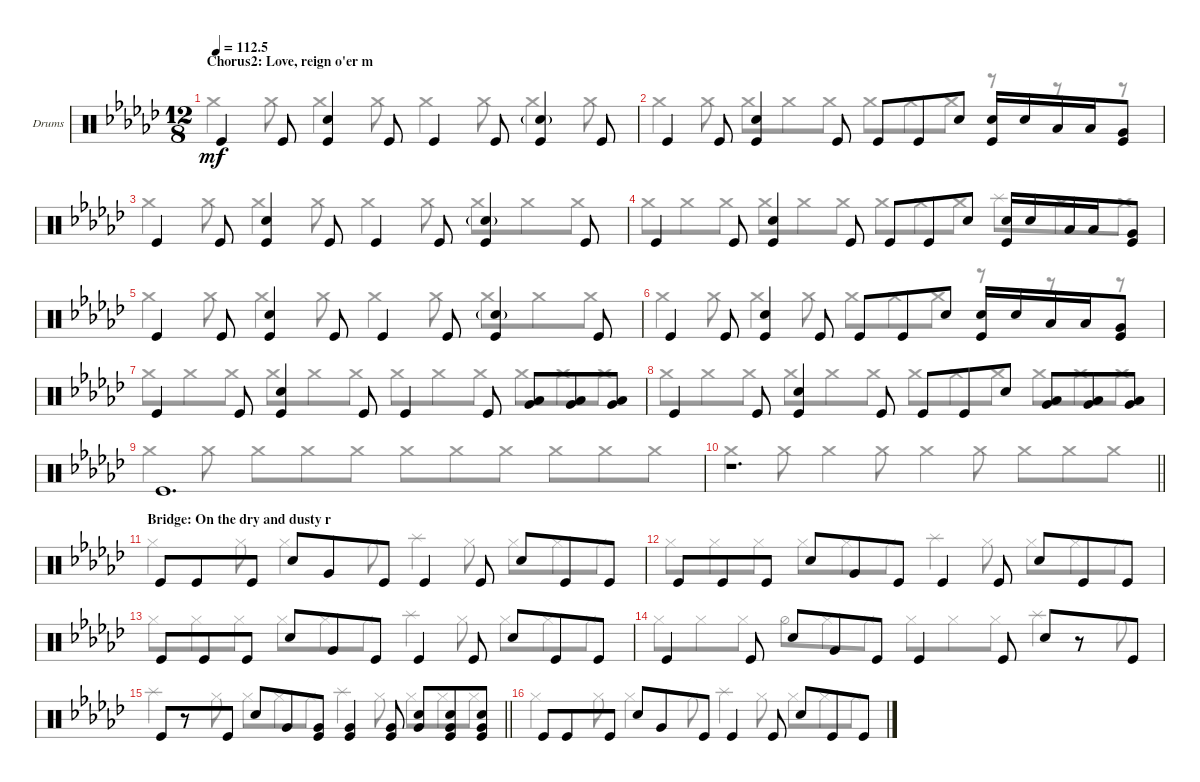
\bracketExtendMode groupsimilarinstruments
\firstSystemTrackNameOrientation horizontal
\otherSystemsTrackNameOrientation horizontal
\track ("Drumkit" "Drums") {instrument percussion}
\staff {score}
\articulation defaults
\voice
\ts (12 8)
\section ("" "Chorus2: Love, reign o'er m")
\tempo
112.5
\accidentals auto
\clef neutral
\ottava regular
\simile none
\ks ebminor "Kick (hit)".4{dy mf} "Kick (hit)".8
("Kick (hit)" "Snare (hit) 2").4 "Kick (hit)".8 "Kick (hit)".4 "Kick (hit)".8 ("Kick (hit)" "Snare (hit) 2"{g}).4 "Kick (hit)".8 |
"Kick (hit)".4 "Kick (hit)".8 ("Kick (hit)" "Snare (hit) 2").4 "Kick (hit)".8 "Kick (hit)".8 "Kick (hit)".8 "Snare (hit) 2".8 ("Snare (hit) 2" "Kick (hit)").16 "Snare (hit) 2".16 "Low Tom (hit)".16 "Low Tom (hit)".16 ("Very Low Tom (hit)" "Kick (hit)").8 |
"Kick (hit)".4 "Kick (hit)".8 ("Kick (hit)" "Snare (hit) 2").4 "Kick (hit)".8 "Kick (hit)".4 "Kick (hit)".8 ("Kick (hit)" "Snare (hit) 2"{g}).4 "Kick (hit)".8 |
"Kick (hit)".4 "Kick (hit)".8 ("Kick (hit)" "Snare (hit) 2").4 "Kick (hit)".8 "Kick (hit)".8 "Kick (hit)".8 "Snare (hit) 2".8 ("Snare (hit) 2" "Kick (hit)").16 "Snare (hit) 2".16 "Low Tom (hit)".16 "Low Tom (hit)".16 ("Very Low Tom (hit)" "Kick (hit)").8 |
"Kick (hit)".4 "Kick (hit)".8 ("Kick (hit)" "Snare (hit) 2").4 "Kick (hit)".8 "Kick (hit)".4 "Kick (hit)".8 ("Kick (hit)" "Snare (hit) 2"{g}).4 "Kick (hit)".8 |
"Kick (hit)".4 "Kick (hit)".8 ("Kick (hit)" "Snare (hit) 2").4 "Kick (hit)".8 "Kick (hit)".8 "Kick (hit)".8 "Snare (hit) 2".8 ("Snare (hit) 2" "Kick (hit)").16 "Snare (hit) 2".16 "Low Tom (hit)".16 "Low Tom (hit)".16 ("Very Low Tom (hit)" "Kick (hit)").8 |
"Kick (hit)".4 "Kick (hit)".8 ("Kick (hit)" "Snare (hit) 2").4 "Kick (hit)".8 "Kick (hit)".4 "Kick (hit)".8 ("Low Tom (hit)" "Very Low Tom (hit)").8 ("Low Tom (hit)" "Very Low Tom (hit)").8 ("Low Tom (hit)" "Very Low Tom (hit)").8 |
"Kick (hit)".4 "Kick (hit)".8 ("Kick (hit)" "Snare (hit) 2").4 "Kick (hit)".8 "Kick (hit)".8 "Kick (hit)".8 "Snare (hit) 2".8 ("Low Tom (hit)" "Very Low Tom (hit)").8 ("Low Tom (hit)" "Very Low Tom (hit)").8 ("Low Tom (hit)" "Very Low Tom (hit)").8 |
"Kick (hit)".1{d} |
\barLineRight lightlight
r.1{d} |
\section ("" "Bridge: On the dry and dusty r")
"Kick (hit)".8 "Kick (hit)".8 "Kick (hit)".8 "Snare (hit) 2".8 "Very Low Tom (hit)".8 "Kick (hit)".8 "Kick (hit)".4 "Kick (hit)".8 "Snare (hit) 2".8 "Kick (hit)".8 "Kick (hit)".8 |
"Kick (hit)".8 "Kick (hit)".8 "Kick (hit)".8 "Snare (hit) 2".8 "Very Low Tom (hit)".8 "Kick (hit)".8 "Kick (hit)".4 "Kick (hit)".8 "Snare (hit) 2".8 "Kick (hit)".8 "Kick (hit)".8 |
"Kick (hit)".8 "Kick (hit)".8 "Kick (hit)".8 "Snare (hit) 2".8 "Very Low Tom (hit)".8 "Kick (hit)".8 "Kick (hit)".4 "Kick (hit)".8 "Snare (hit) 2".8 "Kick (hit)".8 "Kick (hit)".8 |
"Kick (hit)".4 "Kick (hit)".8 "Snare (hit) 2".8 "Very Low Tom (hit)".8 "Kick (hit)".8 "Kick (hit)".4 "Kick (hit)".8 "Snare (hit) 2".8 r.8 "Kick (hit)".8 |
\barLineRight lightlight "Kick (hit)".8
r.8 "Kick (hit)".8 "Snare (hit) 2".8 "Very Low Tom (hit)".8 ("Kick (hit)" "Very Low Tom (hit)").8 ("Kick (hit)" "Very Low Tom (hit)").4 ("Kick (hit)" "Very Low Tom (hit)").8 ("Snare (hit) 2" "Very Low Tom (hit)").8 ("Kick (hit)" "Very Low Tom (hit)" "Snare (hit) 2").8 ("Very Low Tom (hit)" "Kick (hit)" "Snare (hit) 2").8 |
"Kick (hit)".8 "Kick (hit)".8 "Kick (hit)".8 "Snare (hit) 2".8 "Very Low Tom (hit)".8 "Kick (hit)".8 "Kick (hit)".4 "Kick (hit)".8 "Snare (hit) 2".8 "Kick (hit)".8 "Kick (hit)".8
\voice
\clef neutral
\ottava regular
\simile none
\ks ebminor "Crash medium (hit)".4{dy mf} "Crash medium (hit)".8 "Crash medium (hit)".4 "Crash medium (hit)".8 "Crash medium (hit)".4 "Crash medium (hit)".8 "Crash medium (hit)".4 "Crash medium (hit)".8
|
"Crash medium (hit)".4 "Crash medium (hit)".8 "Crash medium (hit)".8 "Crash medium (hit)".8 "Crash medium (hit)".8 "Crash medium (hit)".8 "Crash medium (hit)".8 "Crash medium (hit)".8 r.8 r.8 r.8 |
"Crash medium (hit)".4 "Crash medium (hit)".8 "Crash medium (hit)".4 "Crash medium (hit)".8 "Crash medium (hit)".4 "Crash medium (hit)".8 "Crash medium (hit)".8 "Crash medium (hit)".8 "Crash medium (hit)".8 |
"Crash medium (hit)".8 "Crash medium (hit)".8 "Crash medium (hit)".8 "Crash medium (hit)".8 "Crash medium (hit)".8 "Crash medium (hit)".8 "Crash medium (hit)".8 "Crash medium (hit)".8 "Crash medium (hit)".8 "Splash (hit)".8 "Crash medium (hit)".8 "Crash medium (hit)".8 |
"Crash medium (hit)".4 "Crash medium (hit)".8 "Crash medium (hit)".4 "Crash medium (hit)".8 "Crash medium (hit)".4 "Crash medium (hit)".8 "Crash medium (hit)".8 "Crash medium (hit)".8 "Crash medium (hit)".8 |
"Crash medium (hit)".4 "Crash medium (hit)".8 "Crash medium (hit)".4 "Crash medium (hit)".8 "Crash medium (hit)".8 "Crash medium (hit)".8 "Crash medium (hit)".8 r.8 r.8 r.8 |
"Crash medium (hit)".8 "Crash medium (hit)".8 "Crash medium (hit)".8 "Crash medium (hit)".8 "Crash medium (hit)".8 "Crash medium (hit)".8 "Crash medium (hit)".8 "Crash medium (hit)".8 "Crash medium (hit)".8 "Crash medium (hit)".8 "Crash medium (hit)".8 "Crash medium (hit)".8 |
"Crash medium (hit)".8 "Crash medium (hit)".8 "Crash medium (hit)".8 "Crash medium (hit)".8 "Crash medium (hit)".8 "Crash medium (hit)".8 "Crash medium (hit)".8 "Crash medium (hit)".8 "Crash medium (hit)".8 "Crash medium (hit)".8 "Crash medium (hit)".8 "Crash medium (hit)".8 |
"Crash medium (hit)".4 "Crash medium (hit)".8 "Crash medium (hit)".8 "Crash medium (hit)".8 "Crash medium (hit)".8 "Crash medium (hit)".8 "Crash medium (hit)".8 "Crash medium (hit)".8 "Crash medium (hit)".8 "Crash medium (hit)".8 "Crash medium (hit)".8 |
\barLineRight lightlight "Crash medium (hit)".4 "Crash medium (hit)".8 "Crash medium (hit)".4 "Crash medium (hit)".8 "Crash medium (hit)".4 "Crash medium (hit)".8 "Crash medium (hit)".8 "Crash medium (hit)".8 "Crash medium (hit)".8
|
"Hi-Hat (closed)".4 "Hi-Hat (closed)".8 "Hi-Hat (closed)".4 "Hi-Hat (closed)".8 "Splash (hit)".4 "Hi-Hat (closed)".8 "Hi-Hat (closed)".8 "Hi-Hat (closed)".8 "Hi-Hat (closed)".8 |
"Hi-Hat (closed)".8 "Hi-Hat (closed)".8 "Hi-Hat (closed)".8 "Hi-Hat (closed)".8 "Hi-Hat (closed)".8 "Hi-Hat (closed)".8 "Splash (hit)".4 "Hi-Hat (closed)".8 "Hi-Hat (closed)".8 "Hi-Hat (closed)".8 "Hi-Hat (closed)".8 |
"Hi-Hat (closed)".8 "Hi-Hat (closed)".8 "Hi-Hat (closed)".8 "Hi-Hat (closed)".8 "Hi-Hat (closed)".8 "Hi-Hat (closed)".8 "Splash (hit)".4 "Hi-Hat (closed)".8 "Hi-Hat (closed)".8 "Hi-Hat (closed)".8 "Hi-Hat (closed)".8 |
"Hi-Hat (closed)".8 "Hi-Hat (closed)".8 "Hi-Hat (closed)".8 "Hi-Hat (half)".8 "Hi-Hat (closed)".8 "Hi-Hat (closed)".8 "Hi-Hat (closed)".8 "Hi-Hat (closed)".8 "Hi-Hat (closed)".8 "Splash (hit)".4 "Hi-Hat (closed)".8 |
\barLineRight lightlight "Splash (hit)".4 "Hi-Hat (closed)".8 "Hi-Hat (closed)".8 "Hi-Hat (closed)".8 "Hi-Hat (closed)".8 "Splash (hit)".4 "Hi-Hat (closed)".8 "Hi-Hat (closed)".8 "Hi-Hat (closed)".8 "Hi-Hat (closed)".8
|
"Hi-Hat (closed)".4 "Hi-Hat (closed)".8 "Hi-Hat (closed)".4 "Hi-Hat (closed)".8 "Splash (hit)".4 "Hi-Hat (closed)".8 "Hi-Hat (closed)".8 "Hi-Hat (closed)".8 "Hi-Hat (closed)".8
